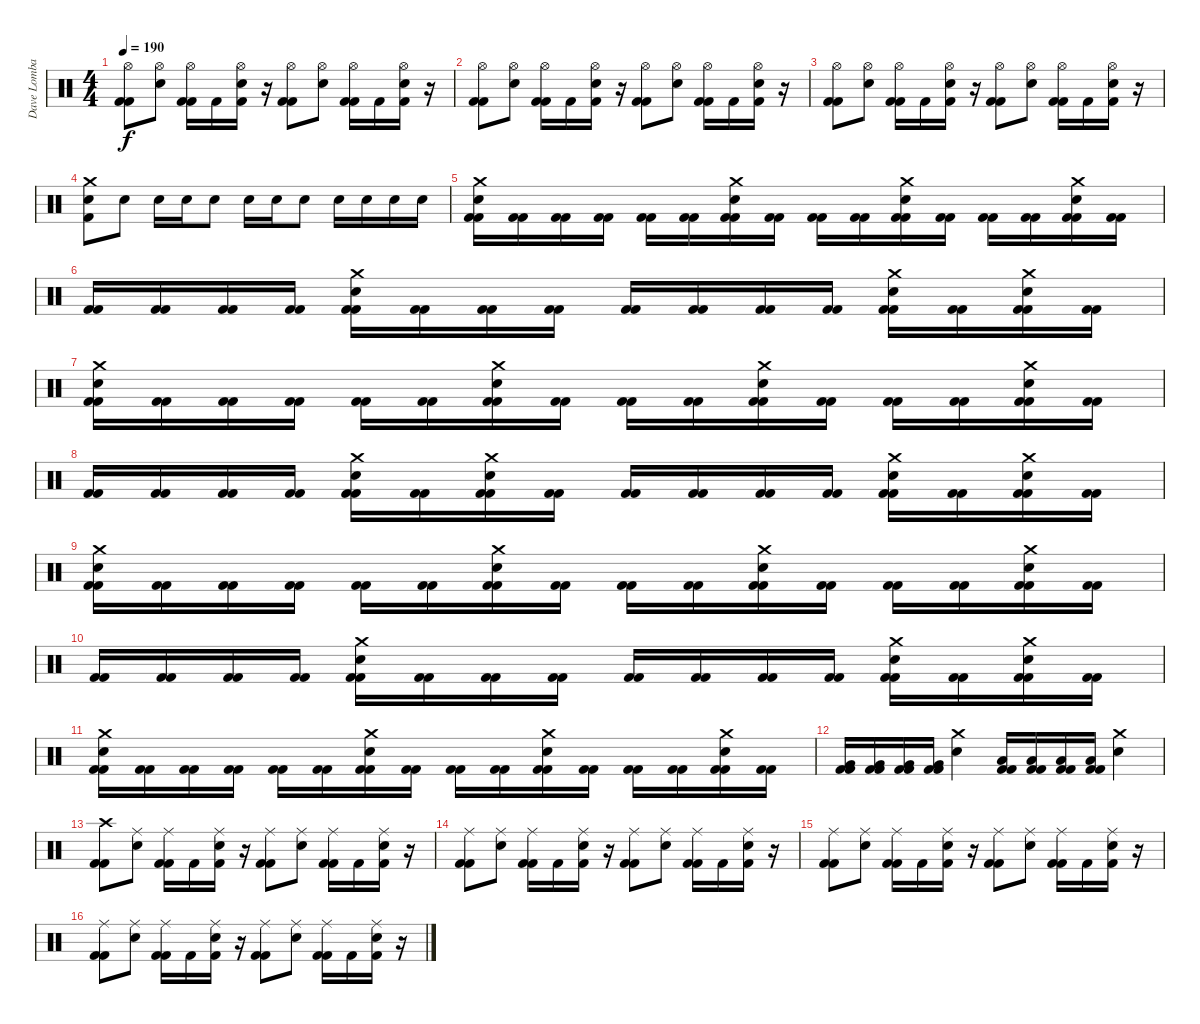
\track ("Dave Lombardo" "Dave Lomba") {instrument percussion}
\staff {score}
\articulation defaults
\ts (4 4)
\tempo 190
\clef neutral
\ks c
("Kick (hit) 2" "Hi-Hat (open)" "Kick (hit) 2").8{dy f} ("Hi-Hat (open)" "Electric Snare (hit)").8 ("Kick (hit) 2" "Hi-Hat (open)" "Kick (hit) 2").16 "Kick (hit) 2".16 ("Hi-Hat (open)" "Electric Snare (hit)" "Kick (hit) 2").16 r.16 ("Kick (hit) 2" "Hi-Hat (open)" "Kick (hit) 2").8 ("Hi-Hat (open)" "Electric Snare (hit)").8 ("Kick (hit) 2" "Hi-Hat (open)" "Kick (hit) 2").16 "Kick (hit) 2".16 ("Hi-Hat (open)" "Electric Snare (hit)" "Kick (hit) 2").16 r.16 |
("Kick (hit) 2" "Hi-Hat (open)" "Kick (hit) 2").8 ("Hi-Hat (open)" "Electric Snare (hit)").8 ("Kick (hit) 2" "Hi-Hat (open)" "Kick (hit) 2").16 "Kick (hit) 2".16 ("Hi-Hat (open)" "Electric Snare (hit)" "Kick (hit) 2").16 r.16 ("Kick (hit) 2" "Hi-Hat (open)" "Kick (hit) 2").8 ("Hi-Hat (open)" "Electric Snare (hit)").8 ("Kick (hit) 2" "Hi-Hat (open)" "Kick (hit) 2").16 "Kick (hit) 2".16 ("Hi-Hat (open)" "Electric Snare (hit)" "Kick (hit) 2").16 r.16 |
("Kick (hit) 2" "Hi-Hat (open)" "Kick (hit) 2").8 ("Hi-Hat (open)" "Electric Snare (hit)").8 ("Kick (hit) 2" "Hi-Hat (open)" "Kick (hit) 2").16 "Kick (hit) 2".16 ("Hi-Hat (open)" "Electric Snare (hit)" "Kick (hit) 2").16 r.16 ("Kick (hit) 2" "Hi-Hat (open)" "Kick (hit) 2").8 ("Hi-Hat (open)" "Electric Snare (hit)").8 ("Kick (hit) 2" "Hi-Hat (open)" "Kick (hit) 2").16 "Kick (hit) 2".16 ("Hi-Hat (open)" "Electric Snare (hit)" "Kick (hit) 2").16 r.16 |
("Crash medium (hit)" "Electric Snare (hit)" "Kick (hit) 2").8 "Electric Snare (hit)".8 "Electric Snare (hit)".16 "Electric Snare (hit)".16 "Electric Snare (hit)".8 "Electric Snare (hit)".16 "Electric Snare (hit)".16 "Electric Snare (hit)".8 "Electric Snare (hit)".16 "Electric Snare (hit)".16 "Electric Snare (hit)".16 "Electric Snare (hit)".16 |
("Kick (hit) 2" "Crash medium (hit)" "Electric Snare (hit)" "Kick (hit) 2").16 ("Kick (hit) 2" "Kick (hit) 2").16 ("Kick (hit) 2" "Kick (hit) 2").16 ("Kick (hit) 2" "Kick (hit) 2").16 ("Kick (hit) 2" "Kick (hit) 2").16 ("Kick (hit) 2" "Kick (hit) 2").16 ("Kick (hit) 2" "Crash medium (hit)" "Electric Snare (hit)" "Kick (hit) 2").16 ("Kick (hit) 2" "Kick (hit) 2").16 ("Kick (hit) 2" "Kick (hit) 2").16 ("Kick (hit) 2" "Kick (hit) 2").16 ("Kick (hit) 2" "Crash medium (hit)" "Electric Snare (hit)" "Kick (hit) 2").16 ("Kick (hit) 2" "Kick (hit) 2").16 ("Kick (hit) 2" "Kick (hit) 2").16 ("Kick (hit) 2" "Kick (hit) 2").16 ("Kick (hit) 2" "Crash medium (hit)" "Electric Snare (hit)" "Kick (hit) 2").16 ("Kick (hit) 2" "Kick (hit) 2").16 |
("Kick (hit) 2" "Kick (hit) 2").16 ("Kick (hit) 2" "Kick (hit) 2").16 ("Kick (hit) 2" "Kick (hit) 2").16 ("Kick (hit) 2" "Kick (hit) 2").16 ("Kick (hit) 2" "Crash medium (hit)" "Electric Snare (hit)" "Kick (hit) 2").16 ("Kick (hit) 2" "Kick (hit) 2").16 ("Kick (hit) 2" "Kick (hit) 2").16 ("Kick (hit) 2" "Kick (hit) 2").16 ("Kick (hit) 2" "Kick (hit) 2").16 ("Kick (hit) 2" "Kick (hit) 2").16 ("Kick (hit) 2" "Kick (hit) 2").16 ("Kick (hit) 2" "Kick (hit) 2").16 ("Kick (hit) 2" "Crash medium (hit)" "Electric Snare (hit)" "Kick (hit) 2").16 ("Kick (hit) 2" "Kick (hit) 2").16 ("Kick (hit) 2" "Crash medium (hit)" "Electric Snare (hit)" "Kick (hit) 2").16 ("Kick (hit) 2" "Kick (hit) 2").16 |
("Kick (hit) 2" "Crash medium (hit)" "Electric Snare (hit)" "Kick (hit) 2").16 ("Kick (hit) 2" "Kick (hit) 2").16 ("Kick (hit) 2" "Kick (hit) 2").16 ("Kick (hit) 2" "Kick (hit) 2").16 ("Kick (hit) 2" "Kick (hit) 2").16 ("Kick (hit) 2" "Kick (hit) 2").16 ("Kick (hit) 2" "Crash medium (hit)" "Electric Snare (hit)" "Kick (hit) 2").16 ("Kick (hit) 2" "Kick (hit) 2").16 ("Kick (hit) 2" "Kick (hit) 2").16 ("Kick (hit) 2" "Kick (hit) 2").16 ("Kick (hit) 2" "Crash medium (hit)" "Electric Snare (hit)" "Kick (hit) 2").16 ("Kick (hit) 2" "Kick (hit) 2").16 ("Kick (hit) 2" "Kick (hit) 2").16 ("Kick (hit) 2" "Kick (hit) 2").16 ("Kick (hit) 2" "Crash medium (hit)" "Electric Snare (hit)" "Kick (hit) 2").16 ("Kick (hit) 2" "Kick (hit) 2").16 |
("Kick (hit) 2" "Kick (hit) 2").16 ("Kick (hit) 2" "Kick (hit) 2").16 ("Kick (hit) 2" "Kick (hit) 2").16 ("Kick (hit) 2" "Kick (hit) 2").16 ("Kick (hit) 2" "Crash medium (hit)" "Electric Snare (hit)" "Kick (hit) 2").16 ("Kick (hit) 2" "Kick (hit) 2").16 ("Kick (hit) 2" "Crash medium (hit)" "Electric Snare (hit)" "Kick (hit) 2").16 ("Kick (hit) 2" "Kick (hit) 2").16 ("Kick (hit) 2" "Kick (hit) 2").16 ("Kick (hit) 2" "Kick (hit) 2").16 ("Kick (hit) 2" "Kick (hit) 2").16 ("Kick (hit) 2" "Kick (hit) 2").16 ("Kick (hit) 2" "Crash medium (hit)" "Electric Snare (hit)" "Kick (hit) 2").16 ("Kick (hit) 2" "Kick (hit) 2").16 ("Kick (hit) 2" "Crash medium (hit)" "Electric Snare (hit)" "Kick (hit) 2").16 ("Kick (hit) 2" "Kick (hit) 2").16 |
("Kick (hit) 2" "Crash medium (hit)" "Electric Snare (hit)" "Kick (hit) 2").16 ("Kick (hit) 2" "Kick (hit) 2").16 ("Kick (hit) 2" "Kick (hit) 2").16 ("Kick (hit) 2" "Kick (hit) 2").16 ("Kick (hit) 2" "Kick (hit) 2").16 ("Kick (hit) 2" "Kick (hit) 2").16 ("Kick (hit) 2" "Crash medium (hit)" "Electric Snare (hit)" "Kick (hit) 2").16 ("Kick (hit) 2" "Kick (hit) 2").16 ("Kick (hit) 2" "Kick (hit) 2").16 ("Kick (hit) 2" "Kick (hit) 2").16 ("Kick (hit) 2" "Crash medium (hit)" "Electric Snare (hit)" "Kick (hit) 2").16 ("Kick (hit) 2" "Kick (hit) 2").16 ("Kick (hit) 2" "Kick (hit) 2").16 ("Kick (hit) 2" "Kick (hit) 2").16 ("Kick (hit) 2" "Crash medium (hit)" "Electric Snare (hit)" "Kick (hit) 2").16 ("Kick (hit) 2" "Kick (hit) 2").16 |
("Kick (hit) 2" "Kick (hit) 2").16 ("Kick (hit) 2" "Kick (hit) 2").16 ("Kick (hit) 2" "Kick (hit) 2").16 ("Kick (hit) 2" "Kick (hit) 2").16 ("Kick (hit) 2" "Crash medium (hit)" "Electric Snare (hit)" "Kick (hit) 2").16 ("Kick (hit) 2" "Kick (hit) 2").16 ("Kick (hit) 2" "Kick (hit) 2").16 ("Kick (hit) 2" "Kick (hit) 2").16 ("Kick (hit) 2" "Kick (hit) 2").16 ("Kick (hit) 2" "Kick (hit) 2").16 ("Kick (hit) 2" "Kick (hit) 2").16 ("Kick (hit) 2" "Kick (hit) 2").16 ("Kick (hit) 2" "Crash medium (hit)" "Electric Snare (hit)" "Kick (hit) 2").16 ("Kick (hit) 2" "Kick (hit) 2").16 ("Kick (hit) 2" "Crash medium (hit)" "Electric Snare (hit)" "Kick (hit) 2").16 ("Kick (hit) 2" "Kick (hit) 2").16 |
("Kick (hit) 2" "Crash medium (hit)" "Electric Snare (hit)" "Kick (hit) 2").16 ("Kick (hit) 2" "Kick (hit) 2").16 ("Kick (hit) 2" "Kick (hit) 2").16 ("Kick (hit) 2" "Kick (hit) 2").16 ("Kick (hit) 2" "Kick (hit) 2").16 ("Kick (hit) 2" "Kick (hit) 2").16 ("Kick (hit) 2" "Crash medium (hit)" "Electric Snare (hit)" "Kick (hit) 2").16 ("Kick (hit) 2" "Kick (hit) 2").16 ("Kick (hit) 2" "Kick (hit) 2").16 ("Kick (hit) 2" "Kick (hit) 2").16 ("Kick (hit) 2" "Crash medium (hit)" "Electric Snare (hit)" "Kick (hit) 2").16 ("Kick (hit) 2" "Kick (hit) 2").16 ("Kick (hit) 2" "Kick (hit) 2").16 ("Kick (hit) 2" "Kick (hit) 2").16 ("Kick (hit) 2" "Crash medium (hit)" "Electric Snare (hit)" "Kick (hit) 2").16 ("Kick (hit) 2" "Kick (hit) 2").16 |
("Kick (hit) 2" "Very Low Tom (hit)" "Kick (hit) 2").16 ("Kick (hit) 2" "Very Low Tom (hit)" "Kick (hit) 2").16 ("Kick (hit) 2" "Very Low Tom (hit)" "Kick (hit) 2").16 ("Kick (hit) 2" "Very Low Tom (hit)" "Kick (hit) 2").16 ("Crash medium (hit)" "Electric Snare (hit)").4 ("Kick (hit) 2" "Low Floor Tom (hit)" "Kick (hit) 2").16 ("Kick (hit) 2" "Low Floor Tom (hit)" "Kick (hit) 2").16 ("Kick (hit) 2" "Low Floor Tom (hit)" "Kick (hit) 2").16 ("Kick (hit) 2" "Low Floor Tom (hit)" "Kick (hit) 2").16 ("Crash medium (hit)" "Electric Snare (hit)").4 |
("Kick (hit) 2" "Crash high (hit)" "Kick (hit) 2").8 ("Ride (middle)" "Electric Snare (hit)").8 ("Kick (hit) 2" "Ride (middle)" "Kick (hit) 2").16 "Kick (hit) 2".16 ("Ride (middle)" "Electric Snare (hit)" "Kick (hit) 2").16 r.16 ("Kick (hit) 2" "Ride (middle)" "Kick (hit) 2").8 ("Ride (middle)" "Electric Snare (hit)").8 ("Kick (hit) 2" "Ride (middle)" "Kick (hit) 2").16 "Kick (hit) 2".16 ("Ride (middle)" "Electric Snare (hit)" "Kick (hit) 2").16 r.16 |
("Kick (hit) 2" "Ride (middle)" "Kick (hit) 2").8 ("Ride (middle)" "Electric Snare (hit)").8 ("Kick (hit) 2" "Ride (middle)" "Kick (hit) 2").16 "Kick (hit) 2".16 ("Ride (middle)" "Electric Snare (hit)" "Kick (hit) 2").16 r.16 ("Kick (hit) 2" "Ride (middle)" "Kick (hit) 2").8 ("Ride (middle)" "Electric Snare (hit)").8 ("Kick (hit) 2" "Ride (middle)" "Kick (hit) 2").16 "Kick (hit) 2".16 ("Ride (middle)" "Electric Snare (hit)" "Kick (hit) 2").16 r.16 |
("Kick (hit) 2" "Ride (middle)" "Kick (hit) 2").8 ("Ride (middle)" "Electric Snare (hit)").8 ("Kick (hit) 2" "Ride (middle)" "Kick (hit) 2").16 "Kick (hit) 2".16 ("Ride (middle)" "Electric Snare (hit)" "Kick (hit) 2").16 r.16 ("Kick (hit) 2" "Ride (middle)" "Kick (hit) 2").8 ("Ride (middle)" "Electric Snare (hit)").8 ("Kick (hit) 2" "Ride (middle)" "Kick (hit) 2").16 "Kick (hit) 2".16 ("Ride (middle)" "Electric Snare (hit)" "Kick (hit) 2").16 r.16 |
("Kick (hit) 2" "Ride (middle)" "Kick (hit) 2").8 ("Ride (middle)" "Electric Snare (hit)").8 ("Kick (hit) 2" "Ride (middle)" "Kick (hit) 2").16 "Kick (hit) 2".16 ("Ride (middle)" "Electric Snare (hit)" "Kick (hit) 2").16 r.16 ("Kick (hit) 2" "Ride (middle)" "Kick (hit) 2").8 ("Ride (middle)" "Electric Snare (hit)").8 ("Kick (hit) 2" "Ride (middle)" "Kick (hit) 2").16 "Kick (hit) 2".16 ("Ride (middle)" "Electric Snare (hit)" "Kick (hit) 2").16 r.16
